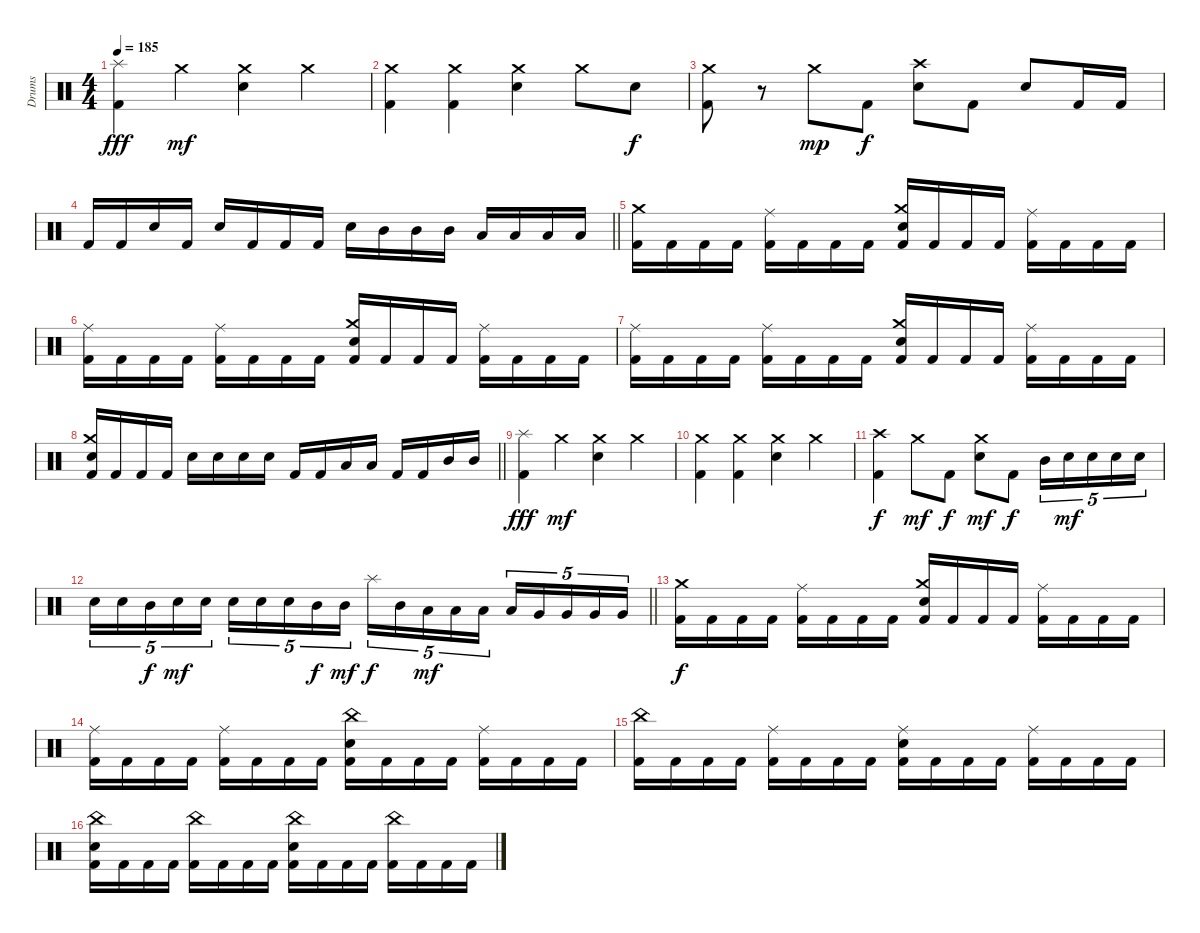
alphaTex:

\track ("Drums" "Drums") {instrument percussion}
\staff {score}
\articulation defaults
\ts (4 4)
\tempo 185
\clef neutral
\ks c
("Splash (hit)" "Kick (hit) 2").4{dy fff} "Crash medium (hit)".4{dy mf} ("Crash medium (hit)" "Electric Snare (hit)").4 "Crash medium (hit)".4 |
("Crash medium (hit)" "Kick (hit) 2").4 ("Crash medium (hit)" "Kick (hit) 2").4 ("Crash medium (hit)" "Electric Snare (hit)").4 "Crash medium (hit)".8 "Electric Snare (hit)".8{dy f} |
("Crash medium (hit)" "Kick (hit) 2").8 r.8 "Crash medium (hit)".8{dy mp} "Kick (hit) 2".8{dy f} ("Crash high (hit)" "Electric Snare (hit)").8 "Kick (hit) 2".8 "Electric Snare (hit)".8 "Kick (hit) 2".16 "Kick (hit) 2".16 |
\barLineRight lightlight "Kick (hit) 2".16 "Kick (hit) 2".16 "Electric Snare (hit)".16 "Kick (hit) 2".16 "Electric Snare (hit)".16 "Kick (hit) 2".16 "Kick (hit) 2".16 "Kick (hit) 2".16 "Electric Snare (hit)".16 "Mid Tom (hit)".16 "Mid Tom (hit)".16 "Mid Tom (hit)".16 "Low Tom (hit)".16 "Low Tom (hit)".16 "Low Tom (hit)".16 "Low Tom (hit)".16
|
("Crash medium (hit)" "Kick (hit) 2").16 "Kick (hit) 2".16 "Kick (hit) 2".16 "Kick (hit) 2".16 ("Ride (middle)" "Kick (hit) 2").16 "Kick (hit) 2".16 "Kick (hit) 2".16 "Kick (hit) 2".16 ("Crash medium (hit)" "Electric Snare (hit)" "Kick (hit) 2").16 "Kick (hit) 2".16 "Kick (hit) 2".16 "Kick (hit) 2".16 ("Ride (middle)" "Kick (hit) 2").16 "Kick (hit) 2".16 "Kick (hit) 2".16 "Kick (hit) 2".16 |
("Ride (middle)" "Kick (hit) 2").16 "Kick (hit) 2".16 "Kick (hit) 2".16 "Kick (hit) 2".16 ("Ride (middle)" "Kick (hit) 2").16 "Kick (hit) 2".16 "Kick (hit) 2".16 "Kick (hit) 2".16 ("Crash medium (hit)" "Electric Snare (hit)" "Kick (hit) 2").16 "Kick (hit) 2".16 "Kick (hit) 2".16 "Kick (hit) 2".16 ("Ride (middle)" "Kick (hit) 2").16 "Kick (hit) 2".16 "Kick (hit) 2".16 "Kick (hit) 2".16 |
("Ride (middle)" "Kick (hit) 2").16 "Kick (hit) 2".16 "Kick (hit) 2".16 "Kick (hit) 2".16 ("Ride (middle)" "Kick (hit) 2").16 "Kick (hit) 2".16 "Kick (hit) 2".16 "Kick (hit) 2".16 ("Crash medium (hit)" "Electric Snare (hit)" "Kick (hit) 2").16 "Kick (hit) 2".16 "Kick (hit) 2".16 "Kick (hit) 2".16 ("Ride (middle)" "Kick (hit) 2").16 "Kick (hit) 2".16 "Kick (hit) 2".16 "Kick (hit) 2".16 |
\barLineRight lightlight
("Crash medium (hit)" "Electric Snare (hit)" "Kick (hit) 2").16 "Kick (hit) 2".16 "Kick (hit) 2".16 "Kick (hit) 2".16 "Electric Snare (hit)".16 "Electric Snare (hit)".16 "Electric Snare (hit)".16 "Electric Snare (hit)".16 "Kick (hit) 2".16 "Kick (hit) 2".16 "Low Tom (hit)".16 "Low Tom (hit)".16 "Kick (hit) 2".16 "Kick (hit) 2".16 "Mid Tom (hit)".16 "Mid Tom (hit)".16 |
("Splash (hit)" "Kick (hit) 2").4{dy fff} "Crash medium (hit)".4{dy mf} ("Crash medium (hit)" "Electric Snare (hit)").4 "Crash medium (hit)".4 |
("Crash medium (hit)" "Kick (hit) 2").4 ("Crash medium (hit)" "Kick (hit) 2").4 ("Crash medium (hit)" "Electric Snare (hit)").4 "Crash medium (hit)".4 |
("Crash high (hit)" "Kick (hit) 2").4{dy f} "Crash medium (hit)".8{dy mf} "Kick (hit) 2".8{dy f} ("Crash medium (hit)" "Electric Snare (hit)").8{dy mf} "Kick (hit) 2".8{dy f} "Mid Tom (hit)".16{tu (5 4)} "Electric Snare (hit)".16{tu (5 4) dy mf} "Electric Snare (hit)".16{tu (5 4)} "Electric Snare (hit)".16{tu (5 4)} "Electric Snare (hit)".16{tu (5 4)} |
\barLineRight lightlight "Electric Snare (hit)".16{tu (5 4)} "Electric Snare (hit)".16{tu (5 4)} "Mid Tom (hit)".16{tu (5 4) dy f} "Electric Snare (hit)".16{tu (5 4) dy mf} "Electric Snare (hit)".16{tu (5 4)} "Electric Snare (hit)".16{tu (5 4)} "Electric Snare (hit)".16{tu (5 4)} "Electric Snare (hit)".16{tu (5 4)} "Mid Tom (hit)".16{tu (5 4) dy f} "Mid Tom (hit)".16{tu (5 4) dy mf} "Splash (hit)".16{tu (5 4) dy f} "Mid Tom (hit)".16{tu (5 4)} "Low Tom (hit)".16{tu (5 4) dy mf} "Low Tom (hit)".16{tu (5 4)} "Low Tom (hit)".16{tu (5 4)} "Low Tom (hit)".16{tu (5 4)} "Very Low Tom (hit)".16{tu (5 4)} "Very Low Tom (hit)".16{tu (5 4)} "Very Low Tom (hit)".16{tu (5 4)} "Very Low Tom (hit)".16{tu (5 4)}
|
("Crash medium (hit)" "Kick (hit) 2").16{dy f} "Kick (hit) 2".16 "Kick (hit) 2".16 "Kick (hit) 2".16 ("Ride (middle)" "Kick (hit) 2").16 "Kick (hit) 2".16 "Kick (hit) 2".16 "Kick (hit) 2".16 ("Crash medium (hit)" "Electric Snare (hit)" "Kick (hit) 2").16 "Kick (hit) 2".16 "Kick (hit) 2".16 "Kick (hit) 2".16 ("Ride (middle)" "Kick (hit) 2").16 "Kick (hit) 2".16 "Kick (hit) 2".16 "Kick (hit) 2".16 |
("Ride (middle)" "Kick (hit) 2").16 "Kick (hit) 2".16 "Kick (hit) 2".16 "Kick (hit) 2".16 ("Ride (middle)" "Kick (hit) 2").16 "Kick (hit) 2".16 "Kick (hit) 2".16 "Kick (hit) 2".16 ("China (hit)" "Electric Snare (hit)" "Kick (hit) 2").16 "Kick (hit) 2".16 "Kick (hit) 2".16 "Kick (hit) 2".16 ("Ride (middle)" "Kick (hit) 2").16 "Kick (hit) 2".16 "Kick (hit) 2".16 "Kick (hit) 2".16 |
("China (hit)" "Kick (hit) 2").16 "Kick (hit) 2".16 "Kick (hit) 2".16 "Kick (hit) 2".16 ("Ride (middle)" "Kick (hit) 2").16 "Kick (hit) 2".16 "Kick (hit) 2".16 "Kick (hit) 2".16 ("Ride (middle)" "Electric Snare (hit)" "Kick (hit) 2").16 "Kick (hit) 2".16 "Kick (hit) 2".16 "Kick (hit) 2".16 ("Ride (middle)" "Kick (hit) 2").16 "Kick (hit) 2".16 "Kick (hit) 2".16 "Kick (hit) 2".16 |
("China (hit)" "Electric Snare (hit)" "Kick (hit) 2").16 "Kick (hit) 2".16 "Kick (hit) 2".16 "Kick (hit) 2".16 ("China (hit)" "Kick (hit) 2").16 "Kick (hit) 2".16 "Kick (hit) 2".16 "Kick (hit) 2".16 ("China (hit)" "Electric Snare (hit)" "Kick (hit) 2").16 "Kick (hit) 2".16 "Kick (hit) 2".16 "Kick (hit) 2".16 ("China (hit)" "Kick (hit) 2").16 "Kick (hit) 2".16 "Kick (hit) 2".16 "Kick (hit) 2".16
